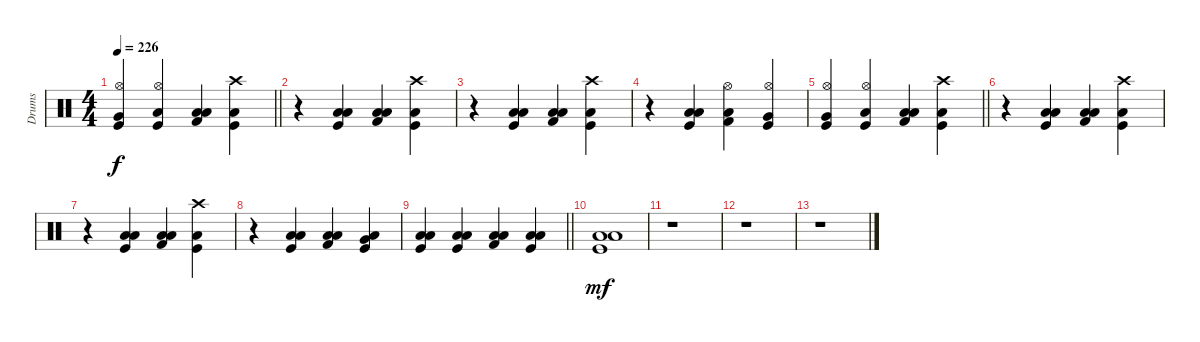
\track ("Drums" "Drums") {instrument percussion}
\staff {score}
\articulation defaults
\ts (4 4)
\tempo 226
\clef neutral
\barLineRight lightlight
\ks c
("Kick (hit)" "Hi-Hat (open)" "Very Low Tom (hit)").4{dy f} ("Kick (hit)" "Hi-Hat (open)" "Low Tom (hit)").4 ("Kick (hit) 2" "Low Floor Tom (hit)" "Low Tom (hit)").4 ("Kick (hit)" "Low Floor Tom (hit)" "Crash high (hit)").4 |
r.4 ("Kick (hit)" "Low Floor Tom (hit)" "Low Tom (hit)").4 ("Kick (hit) 2" "Low Floor Tom (hit)" "Low Tom (hit)").4 ("Kick (hit)" "Low Floor Tom (hit)" "Crash high (hit)").4 |
r.4 ("Kick (hit)" "Low Floor Tom (hit)" "Low Tom (hit)").4 ("Kick (hit) 2" "Low Floor Tom (hit)" "Low Tom (hit)").4 ("Kick (hit)" "Low Floor Tom (hit)" "Crash high (hit)").4 |
r.4 ("Kick (hit)" "Low Floor Tom (hit)" "Low Tom (hit)").4 ("Kick (hit) 2" "Hi-Hat (open)" "Low Tom (hit)").4 ("Kick (hit)" "Hi-Hat (open)" "Very Low Tom (hit)").4 |
\barLineRight lightlight
("Kick (hit)" "Hi-Hat (open)" "Very Low Tom (hit)").4 ("Kick (hit)" "Hi-Hat (open)" "Low Tom (hit)").4 ("Kick (hit) 2" "Low Floor Tom (hit)" "Low Tom (hit)").4 ("Kick (hit)" "Low Floor Tom (hit)" "Crash high (hit)").4 |
r.4 ("Kick (hit)" "Low Floor Tom (hit)" "Low Tom (hit)").4 ("Kick (hit) 2" "Low Floor Tom (hit)" "Low Tom (hit)").4 ("Kick (hit)" "Low Floor Tom (hit)" "Crash high (hit)").4 |
r.4 ("Kick (hit)" "Low Floor Tom (hit)" "Low Tom (hit)").4 ("Kick (hit) 2" "Low Floor Tom (hit)" "Low Tom (hit)").4 ("Kick (hit)" "Low Floor Tom (hit)" "Crash high (hit)").4 |
r.4 ("Kick (hit)" "Low Floor Tom (hit)" "Low Tom (hit)").4 ("Kick (hit) 2" "Low Floor Tom (hit)" "Low Tom (hit)").4 ("Kick (hit)" "Low Floor Tom (hit)" "Very Low Tom (hit)").4 |
\barLineRight lightlight
("Kick (hit)" "Low Floor Tom (hit)" "Low Tom (hit)").4 ("Kick (hit)" "Low Floor Tom (hit)" "Low Tom (hit)").4 ("Kick (hit) 2" "Low Floor Tom (hit)" "Low Tom (hit)").4 ("Kick (hit)" "Low Floor Tom (hit)" "Low Tom (hit)").4 |
("Kick (hit)" "Low Floor Tom (hit)" "Low Tom (hit)").1{dy mf} |
r.1 |
r.1 |
r.1
